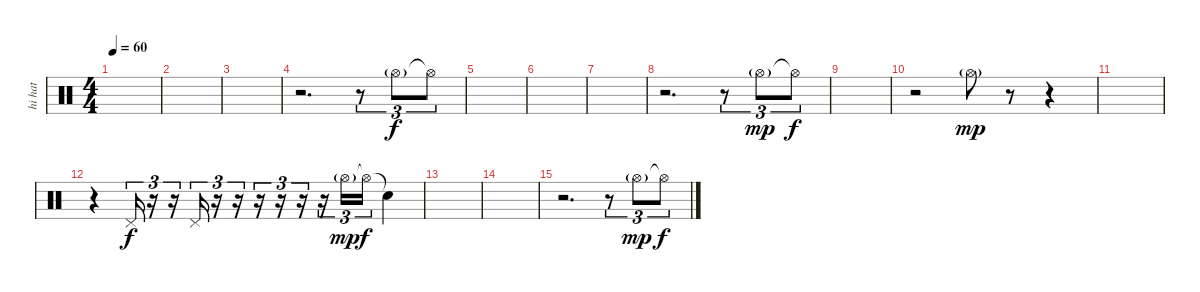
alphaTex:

\track ("hi hat" "hi hat") {instrument percussion}
\staff {score}
\articulation defaults
\ts (4 4)
\tempo 60
\clef neutral
\ks c
|
|
|
r.2{d} r.8{tu (3 2)} "Hi-Hat (open)"{g}.8{tu (3 2)} "Hi-Hat (open)"{t}.8{tu (3 2) dy f} |
|
|
|
r.2{d} r.8{tu (3 2)} "Hi-Hat (open)"{g}.8{tu (3 2) dy mp} "Hi-Hat (open)"{t}.8{tu (3 2) dy f} |
|
r.2 "Hi-Hat (open)"{g}.8{dy mp} r.8 r.4 |
|
r.4 "Pedal Hi-Hat (hit)".16{tu (3 2) dy f} r.16{tu (3 2)} r.16{tu (3 2)} "Pedal Hi-Hat (hit)".16{tu (3 2)} r.16{tu (3 2)} r.16{tu (3 2)} r.16{tu (3 2)} r.16{tu (3 2)} r.16{tu (3 2)} r.16{tu (3 2)} "Hi-Hat (open)"{g}.16{tu (3 2) dy mp} "Hi-Hat (open)"{t}.16{tu (3 2) dy f} "Snare (hit)"{t}.4 |
|
|
r.2{d} r.8{tu (3 2)} "Hi-Hat (open)"{g}.8{tu (3 2) dy mp} "Hi-Hat (open)"{t}.8{tu (3 2) dy f}
